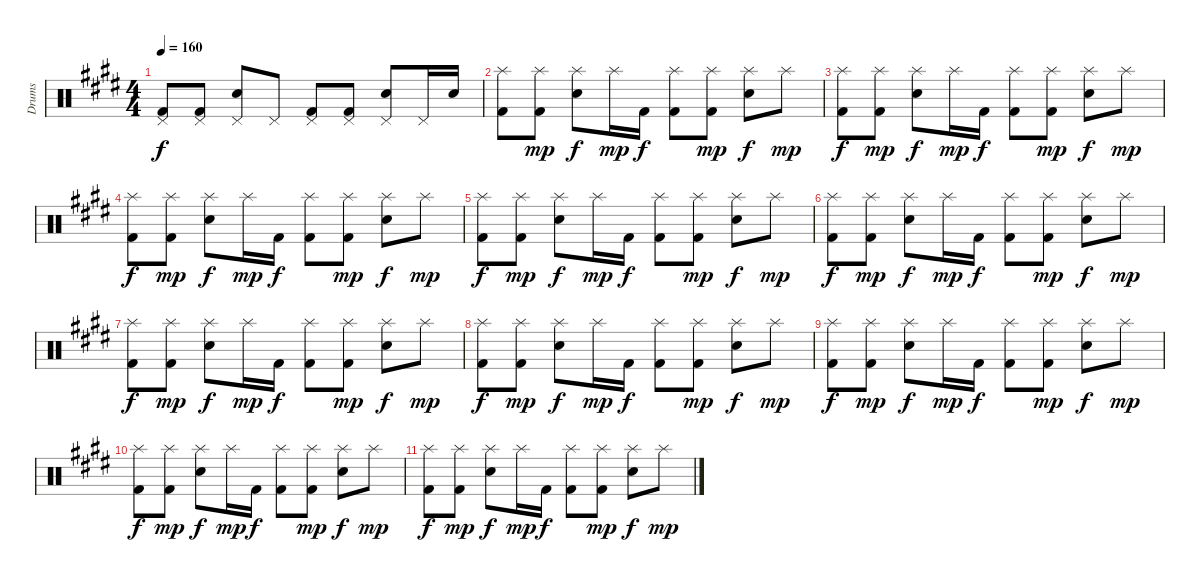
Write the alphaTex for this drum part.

\track ("Drums" "Drums") {instrument percussion}
\staff {score}
\articulation defaults
\ts (4 4)
\tempo 160
\clef neutral
\ks e
("Pedal Hi-Hat (hit)" "Kick (hit) 2").8{dy f} ("Pedal Hi-Hat (hit)" "Kick (hit) 2").8 ("Pedal Hi-Hat (hit)" "Snare (hit) 2").8 "Pedal Hi-Hat (hit)".8 ("Pedal Hi-Hat (hit)" "Kick (hit) 2").8 ("Pedal Hi-Hat (hit)" "Kick (hit) 2").8 ("Pedal Hi-Hat (hit)" "Snare (hit) 2").8 "Pedal Hi-Hat (hit)".16 "Snare (hit) 2".16 |
("Splash (hit)" "Kick (hit) 2").8 ("Splash (hit)" "Kick (hit) 2").8{dy mp} ("Splash (hit)" "Snare (hit) 2").8{dy f} "Splash (hit)".16{dy mp} "Kick (hit) 2".16{dy f} ("Splash (hit)" "Kick (hit) 2").8 ("Splash (hit)" "Kick (hit) 2").8{dy mp} ("Splash (hit)" "Snare (hit) 2").8{dy f} "Splash (hit)".8{dy mp} |
("Splash (hit)" "Kick (hit) 2").8{dy f} ("Splash (hit)" "Kick (hit) 2").8{dy mp} ("Splash (hit)" "Snare (hit) 2").8{dy f} "Splash (hit)".16{dy mp} "Kick (hit) 2".16{dy f} ("Splash (hit)" "Kick (hit) 2").8 ("Splash (hit)" "Kick (hit) 2").8{dy mp} ("Splash (hit)" "Snare (hit) 2").8{dy f} "Splash (hit)".8{dy mp} |
("Splash (hit)" "Kick (hit) 2").8{dy f} ("Splash (hit)" "Kick (hit) 2").8{dy mp} ("Splash (hit)" "Snare (hit) 2").8{dy f} "Splash (hit)".16{dy mp} "Kick (hit) 2".16{dy f} ("Splash (hit)" "Kick (hit) 2").8 ("Splash (hit)" "Kick (hit) 2").8{dy mp} ("Splash (hit)" "Snare (hit) 2").8{dy f} "Splash (hit)".8{dy mp} |
("Splash (hit)" "Kick (hit) 2").8{dy f} ("Splash (hit)" "Kick (hit) 2").8{dy mp} ("Splash (hit)" "Snare (hit) 2").8{dy f} "Splash (hit)".16{dy mp} "Kick (hit) 2".16{dy f} ("Splash (hit)" "Kick (hit) 2").8 ("Splash (hit)" "Kick (hit) 2").8{dy mp} ("Splash (hit)" "Snare (hit) 2").8{dy f} "Splash (hit)".8{dy mp} |
("Splash (hit)" "Kick (hit) 2").8{dy f} ("Splash (hit)" "Kick (hit) 2").8{dy mp} ("Splash (hit)" "Snare (hit) 2").8{dy f} "Splash (hit)".16{dy mp} "Kick (hit) 2".16{dy f} ("Splash (hit)" "Kick (hit) 2").8 ("Splash (hit)" "Kick (hit) 2").8{dy mp} ("Splash (hit)" "Snare (hit) 2").8{dy f} "Splash (hit)".8{dy mp} |
("Splash (hit)" "Kick (hit) 2").8{dy f} ("Splash (hit)" "Kick (hit) 2").8{dy mp} ("Splash (hit)" "Snare (hit) 2").8{dy f} "Splash (hit)".16{dy mp} "Kick (hit) 2".16{dy f} ("Splash (hit)" "Kick (hit) 2").8 ("Splash (hit)" "Kick (hit) 2").8{dy mp} ("Splash (hit)" "Snare (hit) 2").8{dy f} "Splash (hit)".8{dy mp} |
("Splash (hit)" "Kick (hit) 2").8{dy f} ("Splash (hit)" "Kick (hit) 2").8{dy mp} ("Splash (hit)" "Snare (hit) 2").8{dy f} "Splash (hit)".16{dy mp} "Kick (hit) 2".16{dy f} ("Splash (hit)" "Kick (hit) 2").8 ("Splash (hit)" "Kick (hit) 2").8{dy mp} ("Splash (hit)" "Snare (hit) 2").8{dy f} "Splash (hit)".8{dy mp} |
("Splash (hit)" "Kick (hit) 2").8{dy f} ("Splash (hit)" "Kick (hit) 2").8{dy mp} ("Splash (hit)" "Snare (hit) 2").8{dy f} "Splash (hit)".16{dy mp} "Kick (hit) 2".16{dy f} ("Splash (hit)" "Kick (hit) 2").8 ("Splash (hit)" "Kick (hit) 2").8{dy mp} ("Splash (hit)" "Snare (hit) 2").8{dy f} "Splash (hit)".8{dy mp} |
("Splash (hit)" "Kick (hit) 2").8{dy f} ("Splash (hit)" "Kick (hit) 2").8{dy mp} ("Splash (hit)" "Snare (hit) 2").8{dy f} "Splash (hit)".16{dy mp} "Kick (hit) 2".16{dy f} ("Splash (hit)" "Kick (hit) 2").8 ("Splash (hit)" "Kick (hit) 2").8{dy mp} ("Splash (hit)" "Snare (hit) 2").8{dy f} "Splash (hit)".8{dy mp} |
("Splash (hit)" "Kick (hit) 2").8{dy f} ("Splash (hit)" "Kick (hit) 2").8{dy mp} ("Splash (hit)" "Snare (hit) 2").8{dy f} "Splash (hit)".16{dy mp} "Kick (hit) 2".16{dy f} ("Splash (hit)" "Kick (hit) 2").8 ("Splash (hit)" "Kick (hit) 2").8{dy mp} ("Splash (hit)" "Snare (hit) 2").8{dy f} "Splash (hit)".8{dy mp}
